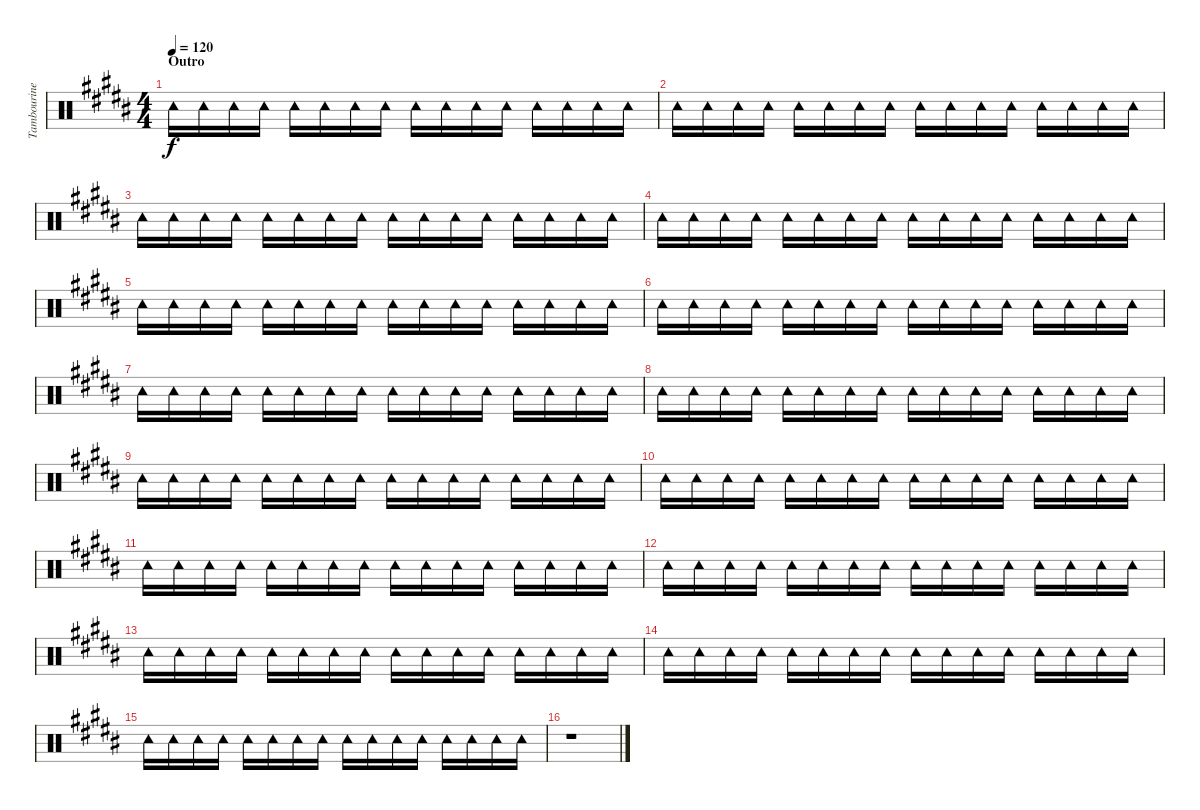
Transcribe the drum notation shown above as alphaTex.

\track ("Tambourine" "Tambourine") {instrument percussion}
\staff {score}
\articulation defaults
\ts (4 4)
\section ("" "Outro")
\tempo 120
\clef neutral
\ks b "Tambourine (hit)".16{dy f} "Tambourine (hit)".16 "Tambourine (hit)".16 "Tambourine (hit)".16 "Tambourine (hit)".16 "Tambourine (hit)".16 "Tambourine (hit)".16 "Tambourine (hit)".16 "Tambourine (hit)".16 "Tambourine (hit)".16 "Tambourine (hit)".16 "Tambourine (hit)".16 "Tambourine (hit)".16 "Tambourine (hit)".16 "Tambourine (hit)".16 "Tambourine (hit)".16
|
"Tambourine (hit)".16 "Tambourine (hit)".16 "Tambourine (hit)".16 "Tambourine (hit)".16 "Tambourine (hit)".16 "Tambourine (hit)".16 "Tambourine (hit)".16 "Tambourine (hit)".16 "Tambourine (hit)".16 "Tambourine (hit)".16 "Tambourine (hit)".16 "Tambourine (hit)".16 "Tambourine (hit)".16 "Tambourine (hit)".16 "Tambourine (hit)".16 "Tambourine (hit)".16 |
"Tambourine (hit)".16 "Tambourine (hit)".16 "Tambourine (hit)".16 "Tambourine (hit)".16 "Tambourine (hit)".16 "Tambourine (hit)".16 "Tambourine (hit)".16 "Tambourine (hit)".16 "Tambourine (hit)".16 "Tambourine (hit)".16 "Tambourine (hit)".16 "Tambourine (hit)".16 "Tambourine (hit)".16 "Tambourine (hit)".16 "Tambourine (hit)".16 "Tambourine (hit)".16 |
"Tambourine (hit)".16 "Tambourine (hit)".16 "Tambourine (hit)".16 "Tambourine (hit)".16 "Tambourine (hit)".16 "Tambourine (hit)".16 "Tambourine (hit)".16 "Tambourine (hit)".16 "Tambourine (hit)".16 "Tambourine (hit)".16 "Tambourine (hit)".16 "Tambourine (hit)".16 "Tambourine (hit)".16 "Tambourine (hit)".16 "Tambourine (hit)".16 "Tambourine (hit)".16 |
"Tambourine (hit)".16 "Tambourine (hit)".16 "Tambourine (hit)".16 "Tambourine (hit)".16 "Tambourine (hit)".16 "Tambourine (hit)".16 "Tambourine (hit)".16 "Tambourine (hit)".16 "Tambourine (hit)".16 "Tambourine (hit)".16 "Tambourine (hit)".16 "Tambourine (hit)".16 "Tambourine (hit)".16 "Tambourine (hit)".16 "Tambourine (hit)".16 "Tambourine (hit)".16 |
"Tambourine (hit)".16 "Tambourine (hit)".16 "Tambourine (hit)".16 "Tambourine (hit)".16 "Tambourine (hit)".16 "Tambourine (hit)".16 "Tambourine (hit)".16 "Tambourine (hit)".16 "Tambourine (hit)".16 "Tambourine (hit)".16 "Tambourine (hit)".16 "Tambourine (hit)".16 "Tambourine (hit)".16 "Tambourine (hit)".16 "Tambourine (hit)".16 "Tambourine (hit)".16 |
"Tambourine (hit)".16 "Tambourine (hit)".16 "Tambourine (hit)".16 "Tambourine (hit)".16 "Tambourine (hit)".16 "Tambourine (hit)".16 "Tambourine (hit)".16 "Tambourine (hit)".16 "Tambourine (hit)".16 "Tambourine (hit)".16 "Tambourine (hit)".16 "Tambourine (hit)".16 "Tambourine (hit)".16 "Tambourine (hit)".16 "Tambourine (hit)".16 "Tambourine (hit)".16 |
"Tambourine (hit)".16 "Tambourine (hit)".16 "Tambourine (hit)".16 "Tambourine (hit)".16 "Tambourine (hit)".16 "Tambourine (hit)".16 "Tambourine (hit)".16 "Tambourine (hit)".16 "Tambourine (hit)".16 "Tambourine (hit)".16 "Tambourine (hit)".16 "Tambourine (hit)".16 "Tambourine (hit)".16 "Tambourine (hit)".16 "Tambourine (hit)".16 "Tambourine (hit)".16 |
"Tambourine (hit)".16 "Tambourine (hit)".16 "Tambourine (hit)".16 "Tambourine (hit)".16 "Tambourine (hit)".16 "Tambourine (hit)".16 "Tambourine (hit)".16 "Tambourine (hit)".16 "Tambourine (hit)".16 "Tambourine (hit)".16 "Tambourine (hit)".16 "Tambourine (hit)".16 "Tambourine (hit)".16 "Tambourine (hit)".16 "Tambourine (hit)".16 "Tambourine (hit)".16 |
"Tambourine (hit)".16 "Tambourine (hit)".16 "Tambourine (hit)".16 "Tambourine (hit)".16 "Tambourine (hit)".16 "Tambourine (hit)".16 "Tambourine (hit)".16 "Tambourine (hit)".16 "Tambourine (hit)".16 "Tambourine (hit)".16 "Tambourine (hit)".16 "Tambourine (hit)".16 "Tambourine (hit)".16 "Tambourine (hit)".16 "Tambourine (hit)".16 "Tambourine (hit)".16 |
"Tambourine (hit)".16 "Tambourine (hit)".16 "Tambourine (hit)".16 "Tambourine (hit)".16 "Tambourine (hit)".16 "Tambourine (hit)".16 "Tambourine (hit)".16 "Tambourine (hit)".16 "Tambourine (hit)".16 "Tambourine (hit)".16 "Tambourine (hit)".16 "Tambourine (hit)".16 "Tambourine (hit)".16 "Tambourine (hit)".16 "Tambourine (hit)".16 "Tambourine (hit)".16 |
"Tambourine (hit)".16 "Tambourine (hit)".16 "Tambourine (hit)".16 "Tambourine (hit)".16 "Tambourine (hit)".16 "Tambourine (hit)".16 "Tambourine (hit)".16 "Tambourine (hit)".16 "Tambourine (hit)".16 "Tambourine (hit)".16 "Tambourine (hit)".16 "Tambourine (hit)".16 "Tambourine (hit)".16 "Tambourine (hit)".16 "Tambourine (hit)".16 "Tambourine (hit)".16 |
"Tambourine (hit)".16 "Tambourine (hit)".16 "Tambourine (hit)".16 "Tambourine (hit)".16 "Tambourine (hit)".16 "Tambourine (hit)".16 "Tambourine (hit)".16 "Tambourine (hit)".16 "Tambourine (hit)".16 "Tambourine (hit)".16 "Tambourine (hit)".16 "Tambourine (hit)".16 "Tambourine (hit)".16 "Tambourine (hit)".16 "Tambourine (hit)".16 "Tambourine (hit)".16 |
"Tambourine (hit)".16 "Tambourine (hit)".16 "Tambourine (hit)".16 "Tambourine (hit)".16 "Tambourine (hit)".16 "Tambourine (hit)".16 "Tambourine (hit)".16 "Tambourine (hit)".16 "Tambourine (hit)".16 "Tambourine (hit)".16 "Tambourine (hit)".16 "Tambourine (hit)".16 "Tambourine (hit)".16 "Tambourine (hit)".16 "Tambourine (hit)".16 "Tambourine (hit)".16 |
"Tambourine (hit)".16 "Tambourine (hit)".16 "Tambourine (hit)".16 "Tambourine (hit)".16 "Tambourine (hit)".16 "Tambourine (hit)".16 "Tambourine (hit)".16 "Tambourine (hit)".16 "Tambourine (hit)".16 "Tambourine (hit)".16 "Tambourine (hit)".16 "Tambourine (hit)".16 "Tambourine (hit)".16 "Tambourine (hit)".16 "Tambourine (hit)".16 "Tambourine (hit)".16 |
r.1
